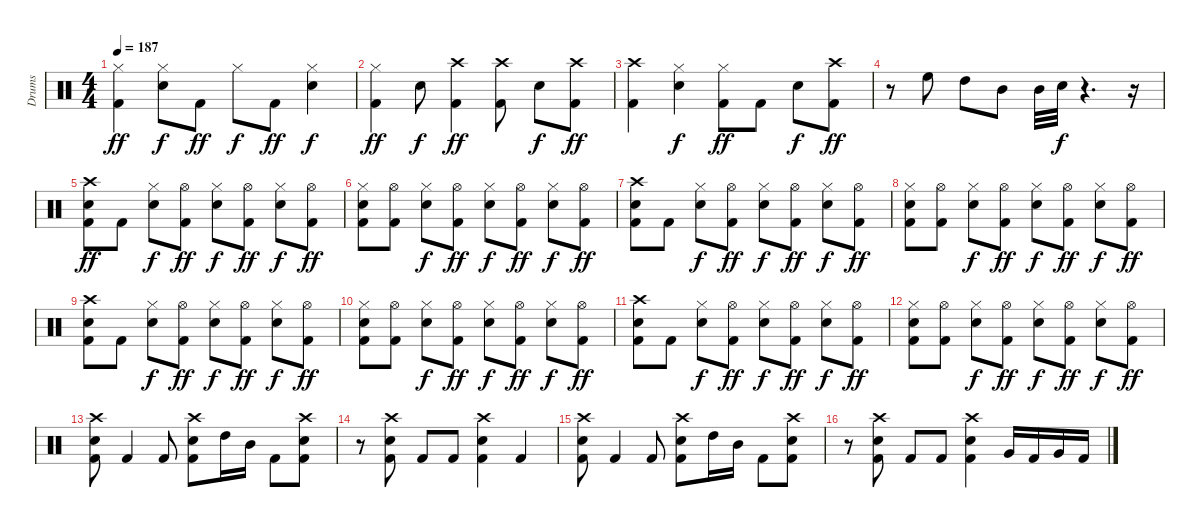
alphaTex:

\track ("Drums" "Drums") {instrument percussion}
\staff {score}
\articulation defaults
\ts (4 4)
\tempo 187
\clef neutral
\ks c
("Hi-Hat (closed)" "Kick (hit) 2").4{dy ff} ("Hi-Hat (closed)" "Electric Snare (hit)").8{dy f} "Kick (hit) 2".8{dy ff} "Hi-Hat (closed)".8{dy f} "Kick (hit) 2".8{dy ff} ("Hi-Hat (closed)" "Electric Snare (hit)").4{dy f} |
("Hi-Hat (closed)" "Kick (hit) 2").4{dy ff} "Electric Snare (hit)".8{dy f} ("Crash high (hit)" "Kick (hit) 2").4{dy ff} ("Crash high (hit)" "Kick (hit) 2").8 "Electric Snare (hit)".8{dy f} ("Crash high (hit)" "Kick (hit) 2").8{dy ff} |
("Crash high (hit)" "Kick (hit) 2").4 ("Hi-Hat (closed)" "Electric Snare (hit)").4{dy f} ("Hi-Hat (closed)" "Kick (hit) 2").8{dy ff} "Kick (hit) 2".8 "Electric Snare (hit)".8{dy f} ("Crash high (hit)" "Kick (hit) 2").8{dy ff} |
r.8 "High Floor Tom (hit)".8 "High Tom (hit)".8 "Mid Tom (hit)".8 "Mid Tom (hit)".32 "Electric Snare (hit)".32{dy f} r.4{d} r.16 |
("Crash high (hit)" "Electric Snare (hit)" "Kick (hit) 2").8{dy ff} "Kick (hit) 2".8 ("Hi-Hat (closed)" "Electric Snare (hit)").8{dy f} ("Hi-Hat (open)" "Kick (hit) 2").8{dy ff} ("Hi-Hat (closed)" "Electric Snare (hit)").8{dy f} ("Hi-Hat (open)" "Kick (hit) 2").8{dy ff} ("Hi-Hat (closed)" "Electric Snare (hit)").8{dy f} ("Hi-Hat (open)" "Kick (hit) 2").8{dy ff} |
("Hi-Hat (closed)" "Electric Snare (hit)" "Kick (hit) 2").8 ("Hi-Hat (open)" "Kick (hit) 2").8 ("Hi-Hat (closed)" "Electric Snare (hit)").8{dy f} ("Hi-Hat (open)" "Kick (hit) 2").8{dy ff} ("Hi-Hat (closed)" "Electric Snare (hit)").8{dy f} ("Hi-Hat (open)" "Kick (hit) 2").8{dy ff} ("Hi-Hat (closed)" "Electric Snare (hit)").8{dy f} ("Hi-Hat (open)" "Kick (hit) 2").8{dy ff} |
("Crash high (hit)" "Electric Snare (hit)" "Kick (hit) 2").8 "Kick (hit) 2".8 ("Hi-Hat (closed)" "Electric Snare (hit)").8{dy f} ("Hi-Hat (open)" "Kick (hit) 2").8{dy ff} ("Hi-Hat (closed)" "Electric Snare (hit)").8{dy f} ("Hi-Hat (open)" "Kick (hit) 2").8{dy ff} ("Hi-Hat (closed)" "Electric Snare (hit)").8{dy f} ("Hi-Hat (open)" "Kick (hit) 2").8{dy ff} |
("Hi-Hat (closed)" "Electric Snare (hit)" "Kick (hit) 2").8 ("Hi-Hat (open)" "Kick (hit) 2").8 ("Hi-Hat (closed)" "Electric Snare (hit)").8{dy f} ("Hi-Hat (open)" "Kick (hit) 2").8{dy ff} ("Hi-Hat (closed)" "Electric Snare (hit)").8{dy f} ("Hi-Hat (open)" "Kick (hit) 2").8{dy ff} ("Hi-Hat (closed)" "Electric Snare (hit)").8{dy f} ("Hi-Hat (open)" "Kick (hit) 2").8{dy ff} |
("Crash high (hit)" "Electric Snare (hit)" "Kick (hit) 2").8 "Kick (hit) 2".8 ("Hi-Hat (closed)" "Electric Snare (hit)").8{dy f} ("Hi-Hat (open)" "Kick (hit) 2").8{dy ff} ("Hi-Hat (closed)" "Electric Snare (hit)").8{dy f} ("Hi-Hat (open)" "Kick (hit) 2").8{dy ff} ("Hi-Hat (closed)" "Electric Snare (hit)").8{dy f} ("Hi-Hat (open)" "Kick (hit) 2").8{dy ff} |
("Hi-Hat (closed)" "Electric Snare (hit)" "Kick (hit) 2").8 ("Hi-Hat (open)" "Kick (hit) 2").8 ("Hi-Hat (closed)" "Electric Snare (hit)").8{dy f} ("Hi-Hat (open)" "Kick (hit) 2").8{dy ff} ("Hi-Hat (closed)" "Electric Snare (hit)").8{dy f} ("Hi-Hat (open)" "Kick (hit) 2").8{dy ff} ("Hi-Hat (closed)" "Electric Snare (hit)").8{dy f} ("Hi-Hat (open)" "Kick (hit) 2").8{dy ff} |
("Crash high (hit)" "Electric Snare (hit)" "Kick (hit) 2").8 "Kick (hit) 2".8 ("Hi-Hat (closed)" "Electric Snare (hit)").8{dy f} ("Hi-Hat (open)" "Kick (hit) 2").8{dy ff} ("Hi-Hat (closed)" "Electric Snare (hit)").8{dy f} ("Hi-Hat (open)" "Kick (hit) 2").8{dy ff} ("Hi-Hat (closed)" "Electric Snare (hit)").8{dy f} ("Hi-Hat (open)" "Kick (hit) 2").8{dy ff} |
("Hi-Hat (closed)" "Electric Snare (hit)" "Kick (hit) 2").8 ("Hi-Hat (open)" "Kick (hit) 2").8 ("Hi-Hat (closed)" "Electric Snare (hit)").8{dy f} ("Hi-Hat (open)" "Kick (hit) 2").8{dy ff} ("Hi-Hat (closed)" "Electric Snare (hit)").8{dy f} ("Hi-Hat (open)" "Kick (hit) 2").8{dy ff} ("Hi-Hat (closed)" "Electric Snare (hit)").8{dy f} ("Hi-Hat (open)" "Kick (hit) 2").8{dy ff} |
("Crash high (hit)" "Electric Snare (hit)" "Kick (hit) 2").8 "Kick (hit) 2".4 "Kick (hit) 2".8 ("Crash high (hit)" "Electric Snare (hit)" "Kick (hit) 2").8 "High Tom (hit)".16 "Mid Tom (hit)".16 "Kick (hit) 2".8 ("Crash high (hit)" "Electric Snare (hit)" "Kick (hit) 2").8 |
r.8 ("Crash high (hit)" "Electric Snare (hit)" "Kick (hit) 2").8 "Kick (hit) 2".8 "Kick (hit) 2".8 ("Crash high (hit)" "Electric Snare (hit)" "Kick (hit) 2").4 "Kick (hit) 2".4 |
("Crash high (hit)" "Electric Snare (hit)" "Kick (hit) 2").8 "Kick (hit) 2".4 "Kick (hit) 2".8 ("Crash high (hit)" "Electric Snare (hit)" "Kick (hit) 2").8 "High Tom (hit)".16 "Mid Tom (hit)".16 "Kick (hit) 2".8 ("Crash high (hit)" "Electric Snare (hit)" "Kick (hit) 2").8 |
r.8 ("Crash high (hit)" "Electric Snare (hit)" "Kick (hit) 2").8 "Kick (hit) 2".8 "Kick (hit) 2".8 ("Crash high (hit)" "Electric Snare (hit)" "Kick (hit) 2").4 "Very Low Tom (hit)".16 "Kick (hit) 2".16 "Very Low Tom (hit)".16 "Kick (hit) 2".16
